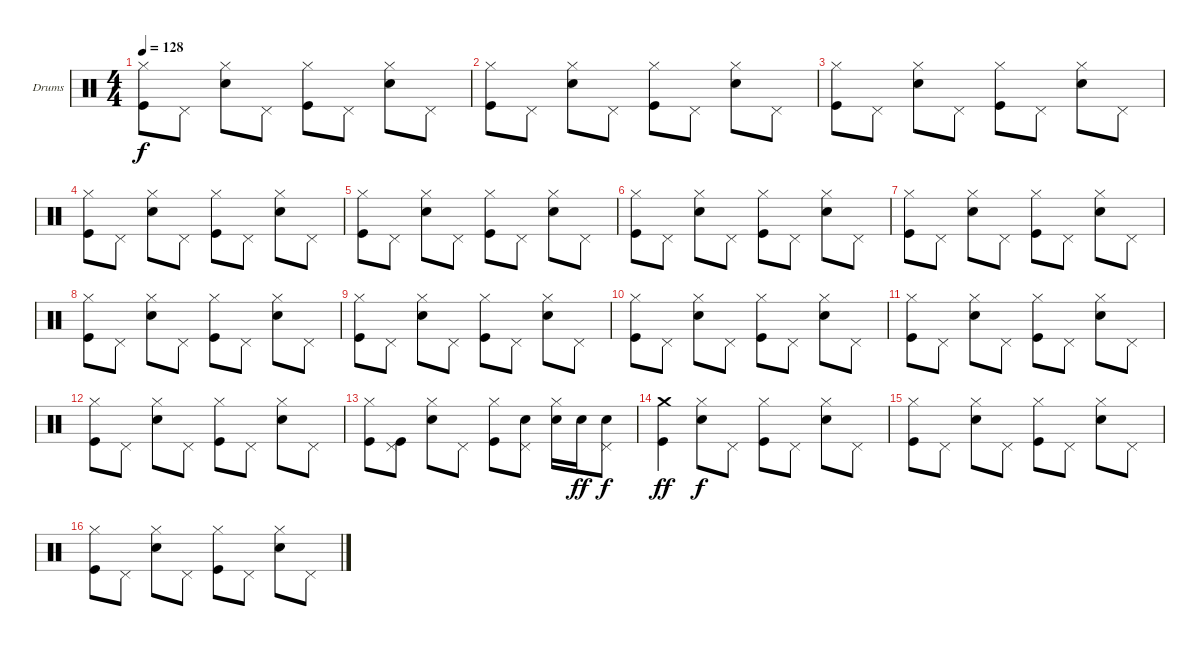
\bracketExtendMode groupsimilarinstruments
\firstSystemTrackNameOrientation horizontal
\otherSystemsTrackNameOrientation horizontal
\track ("Drumkit" "Drums") {instrument percussion}
\staff {score}
\articulation defaults
\ts (4 4)
\tempo 128
\clef neutral
\ks c
("Hi-Hat (closed)" "Kick (hit)").8{dy f} "Pedal Hi-Hat (hit)".8 ("Hi-Hat (closed)" "Snare (hit) 2").8 "Pedal Hi-Hat (hit)".8 ("Hi-Hat (closed)" "Kick (hit)").8 "Pedal Hi-Hat (hit)".8 ("Hi-Hat (closed)" "Snare (hit) 2").8 "Pedal Hi-Hat (hit)".8 |
("Hi-Hat (closed)" "Kick (hit)").8 "Pedal Hi-Hat (hit)".8 ("Hi-Hat (closed)" "Snare (hit) 2").8 "Pedal Hi-Hat (hit)".8 ("Hi-Hat (closed)" "Kick (hit)").8 "Pedal Hi-Hat (hit)".8 ("Hi-Hat (closed)" "Snare (hit) 2").8 "Pedal Hi-Hat (hit)".8 |
("Hi-Hat (closed)" "Kick (hit)").8 "Pedal Hi-Hat (hit)".8 ("Hi-Hat (closed)" "Snare (hit) 2").8 "Pedal Hi-Hat (hit)".8 ("Hi-Hat (closed)" "Kick (hit)").8 "Pedal Hi-Hat (hit)".8 ("Hi-Hat (closed)" "Snare (hit) 2").8 "Pedal Hi-Hat (hit)".8 |
("Hi-Hat (closed)" "Kick (hit)").8 "Pedal Hi-Hat (hit)".8 ("Hi-Hat (closed)" "Snare (hit) 2").8 "Pedal Hi-Hat (hit)".8 ("Hi-Hat (closed)" "Kick (hit)").8 "Pedal Hi-Hat (hit)".8 ("Hi-Hat (closed)" "Snare (hit) 2").8 "Pedal Hi-Hat (hit)".8 |
("Hi-Hat (closed)" "Kick (hit)").8 "Pedal Hi-Hat (hit)".8 ("Hi-Hat (closed)" "Snare (hit) 2").8 "Pedal Hi-Hat (hit)".8 ("Hi-Hat (closed)" "Kick (hit)").8 "Pedal Hi-Hat (hit)".8 ("Hi-Hat (closed)" "Snare (hit) 2").8 "Pedal Hi-Hat (hit)".8 |
("Hi-Hat (closed)" "Kick (hit)").8 "Pedal Hi-Hat (hit)".8 ("Hi-Hat (closed)" "Snare (hit) 2").8 "Pedal Hi-Hat (hit)".8 ("Hi-Hat (closed)" "Kick (hit)").8 "Pedal Hi-Hat (hit)".8 ("Hi-Hat (closed)" "Snare (hit) 2").8 "Pedal Hi-Hat (hit)".8 |
("Hi-Hat (closed)" "Kick (hit)").8 "Pedal Hi-Hat (hit)".8 ("Hi-Hat (closed)" "Snare (hit) 2").8 "Pedal Hi-Hat (hit)".8 ("Hi-Hat (closed)" "Kick (hit)").8 "Pedal Hi-Hat (hit)".8 ("Hi-Hat (closed)" "Snare (hit) 2").8 "Pedal Hi-Hat (hit)".8 |
("Hi-Hat (closed)" "Kick (hit)").8 "Pedal Hi-Hat (hit)".8 ("Hi-Hat (closed)" "Snare (hit) 2").8 "Pedal Hi-Hat (hit)".8 ("Hi-Hat (closed)" "Kick (hit)").8 "Pedal Hi-Hat (hit)".8 ("Hi-Hat (closed)" "Snare (hit) 2").8 "Pedal Hi-Hat (hit)".8 |
("Hi-Hat (closed)" "Kick (hit)").8 "Pedal Hi-Hat (hit)".8 ("Hi-Hat (closed)" "Snare (hit) 2").8 "Pedal Hi-Hat (hit)".8 ("Hi-Hat (closed)" "Kick (hit)").8 "Pedal Hi-Hat (hit)".8 ("Hi-Hat (closed)" "Snare (hit) 2").8 "Pedal Hi-Hat (hit)".8 |
("Hi-Hat (closed)" "Kick (hit)").8 "Pedal Hi-Hat (hit)".8 ("Hi-Hat (closed)" "Snare (hit) 2").8 "Pedal Hi-Hat (hit)".8 ("Hi-Hat (closed)" "Kick (hit)").8 "Pedal Hi-Hat (hit)".8 ("Hi-Hat (closed)" "Snare (hit) 2").8 "Pedal Hi-Hat (hit)".8 |
("Hi-Hat (closed)" "Kick (hit)").8 "Pedal Hi-Hat (hit)".8 ("Hi-Hat (closed)" "Snare (hit) 2").8 "Pedal Hi-Hat (hit)".8 ("Hi-Hat (closed)" "Kick (hit)").8 "Pedal Hi-Hat (hit)".8 ("Hi-Hat (closed)" "Snare (hit) 2").8 "Pedal Hi-Hat (hit)".8 |
("Hi-Hat (closed)" "Kick (hit)").8 "Pedal Hi-Hat (hit)".8 ("Hi-Hat (closed)" "Snare (hit) 2").8 "Pedal Hi-Hat (hit)".8 ("Hi-Hat (closed)" "Kick (hit)").8 "Pedal Hi-Hat (hit)".8 ("Hi-Hat (closed)" "Snare (hit) 2").8 "Pedal Hi-Hat (hit)".8 |
("Hi-Hat (closed)" "Kick (hit)").8 ("Pedal Hi-Hat (hit)" "Kick (hit)").8 ("Hi-Hat (closed)" "Snare (hit) 2").8 "Pedal Hi-Hat (hit)".8 ("Hi-Hat (closed)" "Kick (hit)").8 ("Pedal Hi-Hat (hit)" "Snare (hit) 2").8 ("Hi-Hat (closed)" "Snare (hit) 2").16 "Snare (hit) 2".16{dy ff} ("Pedal Hi-Hat (hit)" "Snare (hit) 2").8{dy f} |
("Crash medium (hit)" "Kick (hit)").4{dy ff} ("Hi-Hat (closed)" "Snare (hit) 2").8{dy f} "Pedal Hi-Hat (hit)".8 ("Hi-Hat (closed)" "Kick (hit)").8 "Pedal Hi-Hat (hit)".8 ("Hi-Hat (closed)" "Snare (hit) 2").8 "Pedal Hi-Hat (hit)".8 |
("Hi-Hat (closed)" "Kick (hit)").8 "Pedal Hi-Hat (hit)".8 ("Hi-Hat (closed)" "Snare (hit) 2").8 "Pedal Hi-Hat (hit)".8 ("Hi-Hat (closed)" "Kick (hit)").8 "Pedal Hi-Hat (hit)".8 ("Hi-Hat (closed)" "Snare (hit) 2").8 "Pedal Hi-Hat (hit)".8 |
("Hi-Hat (closed)" "Kick (hit)").8 "Pedal Hi-Hat (hit)".8 ("Hi-Hat (closed)" "Snare (hit) 2").8 "Pedal Hi-Hat (hit)".8 ("Hi-Hat (closed)" "Kick (hit)").8 "Pedal Hi-Hat (hit)".8 ("Hi-Hat (closed)" "Snare (hit) 2").8 "Pedal Hi-Hat (hit)".8
